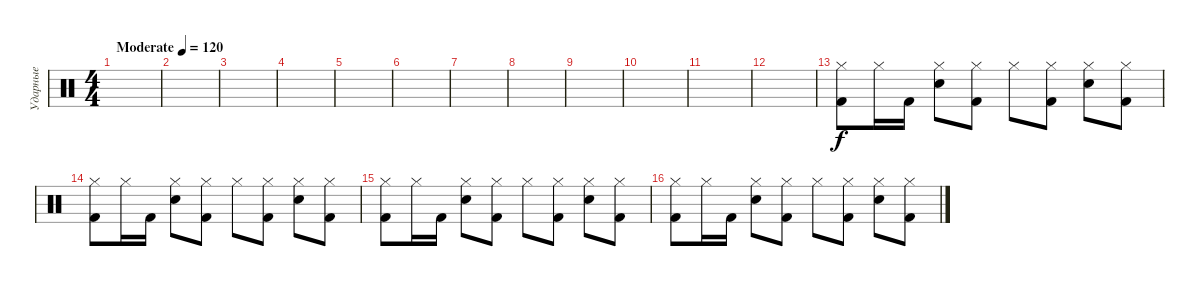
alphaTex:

\track ("Ударные" "Ударные") {instrument percussion}
\staff {score}
\articulation defaults
\ts (4 4)
\tempo (120 "Moderate")
\clef neutral
\ks c
|
|
|
|
|
|
|
|
|
|
|
|
("Hi-Hat (closed)" "Kick (hit) 2").8 "Hi-Hat (closed)".16 "Kick (hit) 2".16 ("Hi-Hat (closed)" "Electric Snare (hit)").8 ("Hi-Hat (closed)" "Kick (hit) 2").8 "Hi-Hat (closed)".8 ("Hi-Hat (closed)" "Kick (hit) 2").8 ("Hi-Hat (closed)" "Electric Snare (hit)").8 ("Hi-Hat (closed)" "Kick (hit) 2").8 |
("Hi-Hat (closed)" "Kick (hit) 2").8 "Hi-Hat (closed)".16 "Kick (hit) 2".16 ("Hi-Hat (closed)" "Electric Snare (hit)").8 ("Hi-Hat (closed)" "Kick (hit) 2").8 "Hi-Hat (closed)".8 ("Hi-Hat (closed)" "Kick (hit) 2").8 ("Hi-Hat (closed)" "Electric Snare (hit)").8 ("Hi-Hat (closed)" "Kick (hit) 2").8 |
("Hi-Hat (closed)" "Kick (hit) 2").8 "Hi-Hat (closed)".16 "Kick (hit) 2".16 ("Hi-Hat (closed)" "Electric Snare (hit)").8 ("Hi-Hat (closed)" "Kick (hit) 2").8 "Hi-Hat (closed)".8 ("Hi-Hat (closed)" "Kick (hit) 2").8 ("Hi-Hat (closed)" "Electric Snare (hit)").8 ("Hi-Hat (closed)" "Kick (hit) 2").8 |
("Hi-Hat (closed)" "Kick (hit) 2").8 "Hi-Hat (closed)".16 "Kick (hit) 2".16 ("Hi-Hat (closed)" "Electric Snare (hit)").8 ("Hi-Hat (closed)" "Kick (hit) 2").8 "Hi-Hat (closed)".8 ("Hi-Hat (closed)" "Kick (hit) 2").8 ("Hi-Hat (closed)" "Electric Snare (hit)").8 ("Hi-Hat (closed)" "Kick (hit) 2").8
